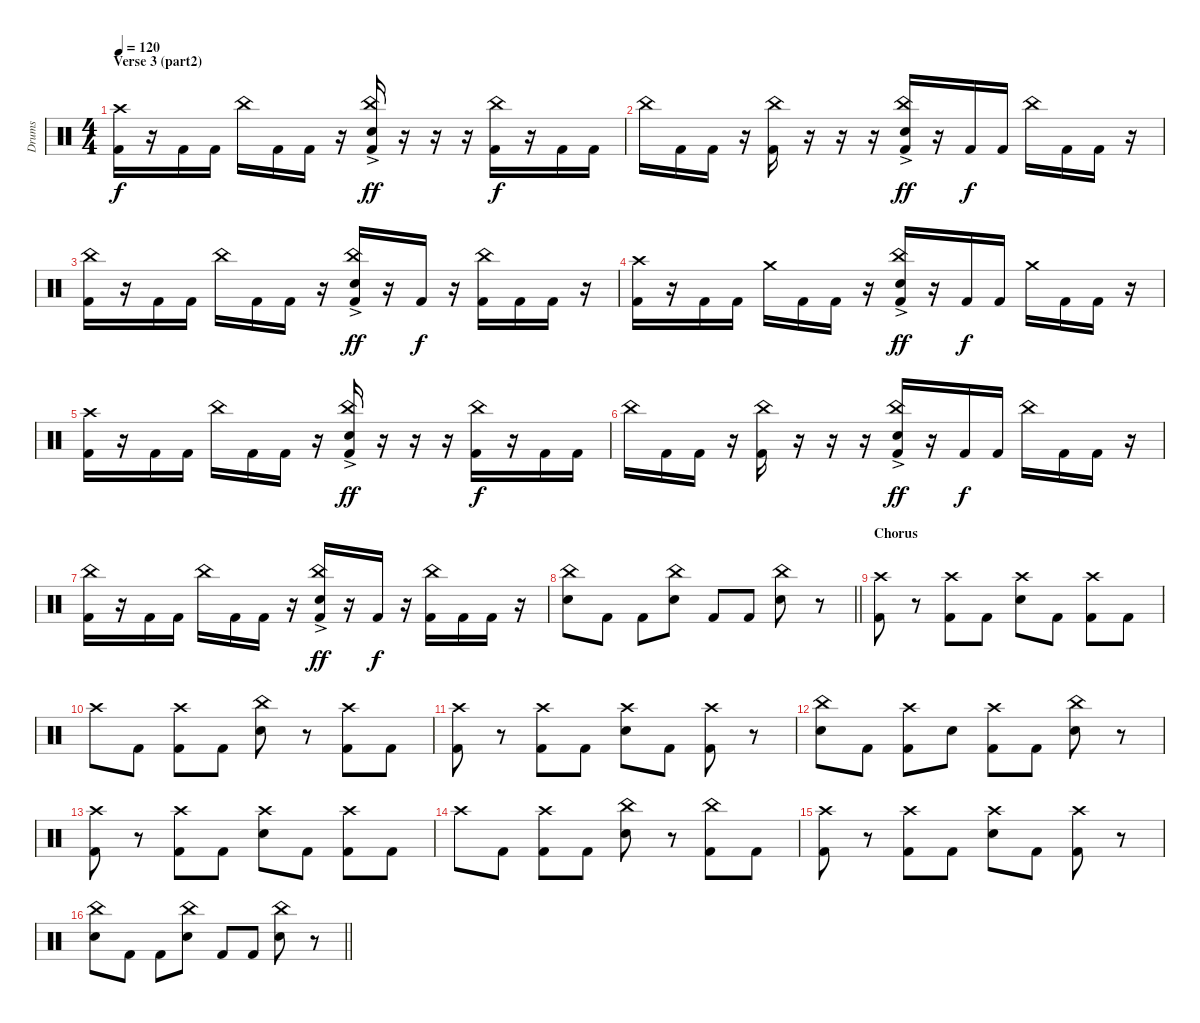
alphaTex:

\track ("Drums" "Drums") {instrument percussion}
\staff {score}
\articulation defaults
\ts (4 4)
\section ("" "Verse 3 (part2)")
\tempo 120
\clef neutral
\ks c
("Kick (hit) 2" "Crash high (hit)").16{dy f} r.16 "Kick (hit) 2".16 "Kick (hit) 2".16 "China (hit)".16 "Kick (hit) 2".16 "Kick (hit) 2".16 r.16 ("Kick (hit) 2" "Electric Snare (hit)"{ac} "China (hit)").16{dy ff} r.16 r.16 r.16 ("Kick (hit) 2" "China (hit)").16{dy f} r.16 "Kick (hit) 2".16 "Kick (hit) 2".16 |
"China (hit)".16 "Kick (hit) 2".16 "Kick (hit) 2".16 r.16 ("Kick (hit) 2" "China (hit)").16 r.16 r.16 r.16 ("Kick (hit) 2" "Electric Snare (hit)"{ac} "China (hit)").16{dy ff} r.16 "Kick (hit) 2".16{dy f} "Kick (hit) 2".16 "China (hit)".16 "Kick (hit) 2".16 "Kick (hit) 2".16 r.16 |
("Kick (hit) 2" "China (hit)").16 r.16 "Kick (hit) 2".16 "Kick (hit) 2".16 "China (hit)".16 "Kick (hit) 2".16 "Kick (hit) 2".16 r.16 ("Kick (hit) 2" "Electric Snare (hit)"{ac} "China (hit)").16{dy ff} r.16 "Kick (hit) 2".16{dy f} r.16 ("Kick (hit) 2" "China (hit)").16 "Kick (hit) 2".16 "Kick (hit) 2".16 r.16 |
("Kick (hit) 2" "Crash high (hit)").16 r.16 "Kick (hit) 2".16 "Kick (hit) 2".16 "Crash medium (hit)".16 "Kick (hit) 2".16 "Kick (hit) 2".16 r.16 ("Kick (hit) 2" "Electric Snare (hit)"{ac} "China (hit)").16{dy ff} r.16 "Kick (hit) 2".16{dy f} "Kick (hit) 2".16 "Crash medium (hit)".16 "Kick (hit) 2".16 "Kick (hit) 2".16 r.16 |
("Kick (hit) 2" "Crash high (hit)").16 r.16 "Kick (hit) 2".16 "Kick (hit) 2".16 "China (hit)".16 "Kick (hit) 2".16 "Kick (hit) 2".16 r.16 ("Kick (hit) 2" "Electric Snare (hit)"{ac} "China (hit)").16{dy ff} r.16 r.16 r.16 ("Kick (hit) 2" "China (hit)").16{dy f} r.16 "Kick (hit) 2".16 "Kick (hit) 2".16 |
"China (hit)".16 "Kick (hit) 2".16 "Kick (hit) 2".16 r.16 ("Kick (hit) 2" "China (hit)").16 r.16 r.16 r.16 ("Kick (hit) 2" "Electric Snare (hit)"{ac} "China (hit)").16{dy ff} r.16 "Kick (hit) 2".16{dy f} "Kick (hit) 2".16 "China (hit)".16 "Kick (hit) 2".16 "Kick (hit) 2".16 r.16 |
("Kick (hit) 2" "China (hit)").16 r.16 "Kick (hit) 2".16 "Kick (hit) 2".16 "China (hit)".16 "Kick (hit) 2".16 "Kick (hit) 2".16 r.16 ("Kick (hit) 2" "Electric Snare (hit)"{ac} "China (hit)").16{dy ff} r.16 "Kick (hit) 2".16{dy f} r.16 ("Kick (hit) 2" "China (hit)").16 "Kick (hit) 2".16 "Kick (hit) 2".16 r.16 |
\barLineRight lightlight
("Electric Snare (hit)" "China (hit)").8 "Kick (hit) 2".8 "Kick (hit) 2".8 ("Electric Snare (hit)" "China (hit)").8 "Kick (hit) 2".8 "Kick (hit) 2".8 ("Electric Snare (hit)" "China (hit)").8 r.8 |
\section ("" "Chorus")
("Kick (hit) 2" "Crash high (hit)").8 r.8 ("Kick (hit) 2" "Crash high (hit)").8 "Kick (hit) 2".8 ("Electric Snare (hit)" "Crash high (hit)").8 "Kick (hit) 2".8 ("Kick (hit) 2" "Crash high (hit)").8 "Kick (hit) 2".8 |
"Crash high (hit)".8 "Kick (hit) 2".8 ("Kick (hit) 2" "Crash high (hit)").8 "Kick (hit) 2".8 ("Electric Snare (hit)" "China (hit)").8 r.8 ("Kick (hit) 2" "Crash high (hit)").8 "Kick (hit) 2".8 |
("Kick (hit) 2" "Crash high (hit)").8 r.8 ("Kick (hit) 2" "Crash high (hit)").8 "Kick (hit) 2".8 ("Electric Snare (hit)" "Crash high (hit)").8 "Kick (hit) 2".8 ("Kick (hit) 2" "Crash high (hit)").8 r.8 |
("Electric Snare (hit)" "China (hit)").8 "Kick (hit) 2".8 ("Kick (hit) 2" "Crash high (hit)").8 "Electric Snare (hit)".8 ("Kick (hit) 2" "Crash high (hit)").8 "Kick (hit) 2".8 ("Electric Snare (hit)" "China (hit)").8 r.8 |
("Kick (hit) 2" "Crash high (hit)").8 r.8 ("Kick (hit) 2" "Crash high (hit)").8 "Kick (hit) 2".8 ("Electric Snare (hit)" "Crash high (hit)").8 "Kick (hit) 2".8 ("Kick (hit) 2" "Crash high (hit)").8 "Kick (hit) 2".8 |
"Crash high (hit)".8 "Kick (hit) 2".8 ("Kick (hit) 2" "Crash high (hit)").8 "Kick (hit) 2".8 ("Electric Snare (hit)" "China (hit)").8 r.8 ("Kick (hit) 2" "China (hit)").8 "Kick (hit) 2".8 |
("Kick (hit) 2" "Crash high (hit)").8 r.8 ("Kick (hit) 2" "Crash high (hit)").8 "Kick (hit) 2".8 ("Electric Snare (hit)" "Crash high (hit)").8 "Kick (hit) 2".8 ("Kick (hit) 2" "Crash high (hit)").8 r.8 |
\barLineRight lightlight
("Electric Snare (hit)" "China (hit)").8 "Kick (hit) 2".8 "Kick (hit) 2".8 ("Electric Snare (hit)" "China (hit)").8 "Kick (hit) 2".8 "Kick (hit) 2".8 ("Electric Snare (hit)" "China (hit)").8 r.8
